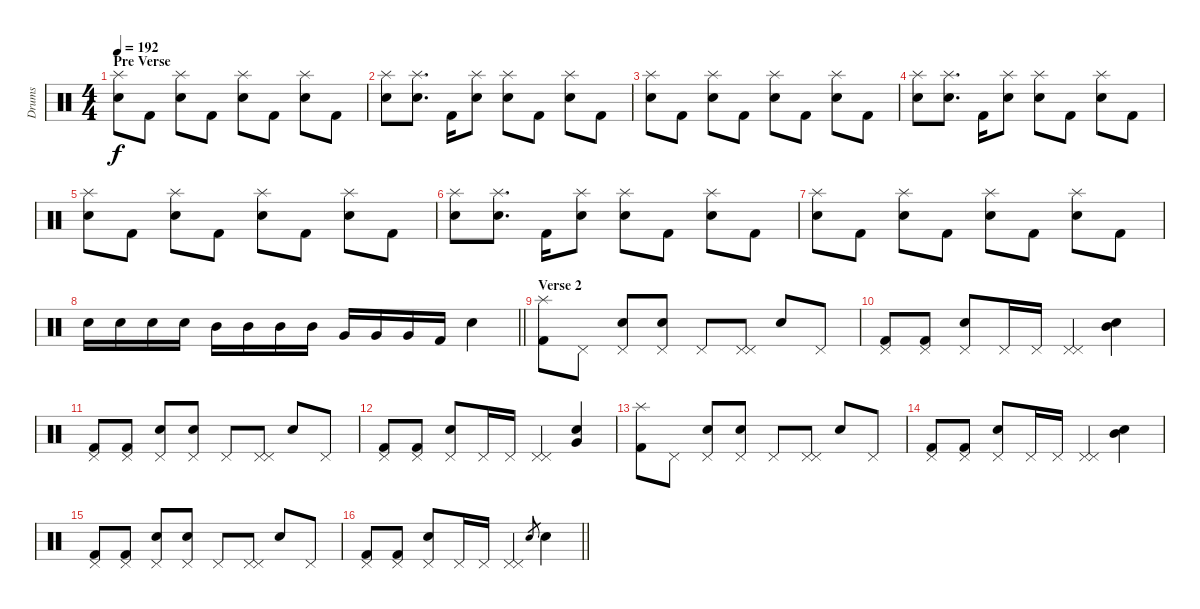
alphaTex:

\track ("Drums" "Drums") {instrument percussion}
\staff {score}
\articulation defaults
\ts (4 4)
\section ("" "Pre Verse")
\tempo 192
\clef neutral
\ks c
("Splash (hit)" "Electric Snare (hit)").8{dy f} "Kick (hit) 2".8 ("Splash (hit)" "Electric Snare (hit)").8 "Kick (hit) 2".8 ("Splash (hit)" "Electric Snare (hit)").8 "Kick (hit) 2".8 ("Splash (hit)" "Electric Snare (hit)").8 "Kick (hit) 2".8 |
("Splash (hit)" "Electric Snare (hit)").8 ("Splash (hit)" "Electric Snare (hit)").8{d} "Kick (hit) 2".16 ("Splash (hit)" "Electric Snare (hit)").8 ("Splash (hit)" "Electric Snare (hit)").8 "Kick (hit) 2".8 ("Splash (hit)" "Electric Snare (hit)").8 "Kick (hit) 2".8 |
("Splash (hit)" "Electric Snare (hit)").8 "Kick (hit) 2".8 ("Splash (hit)" "Electric Snare (hit)").8 "Kick (hit) 2".8 ("Splash (hit)" "Electric Snare (hit)").8 "Kick (hit) 2".8 ("Splash (hit)" "Electric Snare (hit)").8 "Kick (hit) 2".8 |
("Splash (hit)" "Electric Snare (hit)").8 ("Splash (hit)" "Electric Snare (hit)").8{d} "Kick (hit) 2".16 ("Splash (hit)" "Electric Snare (hit)").8 ("Splash (hit)" "Electric Snare (hit)").8 "Kick (hit) 2".8 ("Splash (hit)" "Electric Snare (hit)").8 "Kick (hit) 2".8 |
("Splash (hit)" "Electric Snare (hit)").8 "Kick (hit) 2".8 ("Splash (hit)" "Electric Snare (hit)").8 "Kick (hit) 2".8 ("Splash (hit)" "Electric Snare (hit)").8 "Kick (hit) 2".8 ("Splash (hit)" "Electric Snare (hit)").8 "Kick (hit) 2".8 |
("Splash (hit)" "Electric Snare (hit)").8 ("Splash (hit)" "Electric Snare (hit)").8{d} "Kick (hit) 2".16 ("Splash (hit)" "Electric Snare (hit)").8 ("Splash (hit)" "Electric Snare (hit)").8 "Kick (hit) 2".8 ("Splash (hit)" "Electric Snare (hit)").8 "Kick (hit) 2".8 |
("Splash (hit)" "Electric Snare (hit)").8 "Kick (hit) 2".8 ("Splash (hit)" "Electric Snare (hit)").8 "Kick (hit) 2".8 ("Splash (hit)" "Electric Snare (hit)").8 "Kick (hit) 2".8 ("Splash (hit)" "Electric Snare (hit)").8 "Kick (hit) 2".8 |
\barLineRight lightlight "Electric Snare (hit)".16 "Electric Snare (hit)".16 "Electric Snare (hit)".16 "Electric Snare (hit)".16 "Mid Tom (hit)".16 "Mid Tom (hit)".16 "Mid Tom (hit)".16 "Mid Tom (hit)".16 "Very Low Tom (hit)".16 "Very Low Tom (hit)".16 "Very Low Tom (hit)".16 "Kick (hit) 2".16 "Electric Snare (hit)".4
|
\section ("" "Verse 2")
("Splash (hit)" "Kick (hit) 2").8 "Pedal Hi-Hat (hit)".8 ("Pedal Hi-Hat (hit)" "Electric Snare (hit)").8 ("Pedal Hi-Hat (hit)" "Electric Snare (hit)").8 "Pedal Hi-Hat (hit)".8 ("Pedal Hi-Hat (hit)" "Pedal Hi-Hat (hit)").8 "Electric Snare (hit)".8 "Pedal Hi-Hat (hit)".8 |
("Pedal Hi-Hat (hit)" "Kick (hit) 2").8 ("Pedal Hi-Hat (hit)" "Kick (hit) 2").8 ("Pedal Hi-Hat (hit)" "Electric Snare (hit)").8 "Pedal Hi-Hat (hit)".16 "Pedal Hi-Hat (hit)".16 ("Pedal Hi-Hat (hit)" "Pedal Hi-Hat (hit)").4 ("Mid Tom (hit)" "Electric Snare (hit)").4 |
("Pedal Hi-Hat (hit)" "Kick (hit) 2").8 ("Pedal Hi-Hat (hit)" "Kick (hit) 2").8 ("Pedal Hi-Hat (hit)" "Electric Snare (hit)").8 ("Pedal Hi-Hat (hit)" "Electric Snare (hit)").8 "Pedal Hi-Hat (hit)".8 ("Pedal Hi-Hat (hit)" "Pedal Hi-Hat (hit)").8 "Electric Snare (hit)".8 "Pedal Hi-Hat (hit)".8 |
("Pedal Hi-Hat (hit)" "Kick (hit) 2").8 ("Pedal Hi-Hat (hit)" "Kick (hit) 2").8 ("Pedal Hi-Hat (hit)" "Electric Snare (hit)").8 "Pedal Hi-Hat (hit)".16 "Pedal Hi-Hat (hit)".16 ("Pedal Hi-Hat (hit)" "Pedal Hi-Hat (hit)").4 ("Very Low Tom (hit)" "Electric Snare (hit)").4 |
("Splash (hit)" "Kick (hit) 2").8 "Pedal Hi-Hat (hit)".8 ("Pedal Hi-Hat (hit)" "Electric Snare (hit)").8 ("Pedal Hi-Hat (hit)" "Electric Snare (hit)").8 "Pedal Hi-Hat (hit)".8 ("Pedal Hi-Hat (hit)" "Pedal Hi-Hat (hit)").8 "Electric Snare (hit)".8 "Pedal Hi-Hat (hit)".8 |
("Pedal Hi-Hat (hit)" "Kick (hit) 2").8 ("Pedal Hi-Hat (hit)" "Kick (hit) 2").8 ("Pedal Hi-Hat (hit)" "Electric Snare (hit)").8 "Pedal Hi-Hat (hit)".16 "Pedal Hi-Hat (hit)".16 ("Pedal Hi-Hat (hit)" "Pedal Hi-Hat (hit)").4 ("Mid Tom (hit)" "Electric Snare (hit)").4 |
("Pedal Hi-Hat (hit)" "Kick (hit) 2").8 ("Pedal Hi-Hat (hit)" "Kick (hit) 2").8 ("Pedal Hi-Hat (hit)" "Electric Snare (hit)").8 ("Pedal Hi-Hat (hit)" "Electric Snare (hit)").8 "Pedal Hi-Hat (hit)".8 ("Pedal Hi-Hat (hit)" "Pedal Hi-Hat (hit)").8 "Electric Snare (hit)".8 "Pedal Hi-Hat (hit)".8 |
\barLineRight lightlight
("Pedal Hi-Hat (hit)" "Kick (hit) 2").8 ("Pedal Hi-Hat (hit)" "Kick (hit) 2").8 ("Pedal Hi-Hat (hit)" "Electric Snare (hit)").8 "Pedal Hi-Hat (hit)".16 "Pedal Hi-Hat (hit)".16 ("Pedal Hi-Hat (hit)" "Pedal Hi-Hat (hit)").4 "Electric Snare (hit)".8{gr} "Electric Snare (hit)".4
